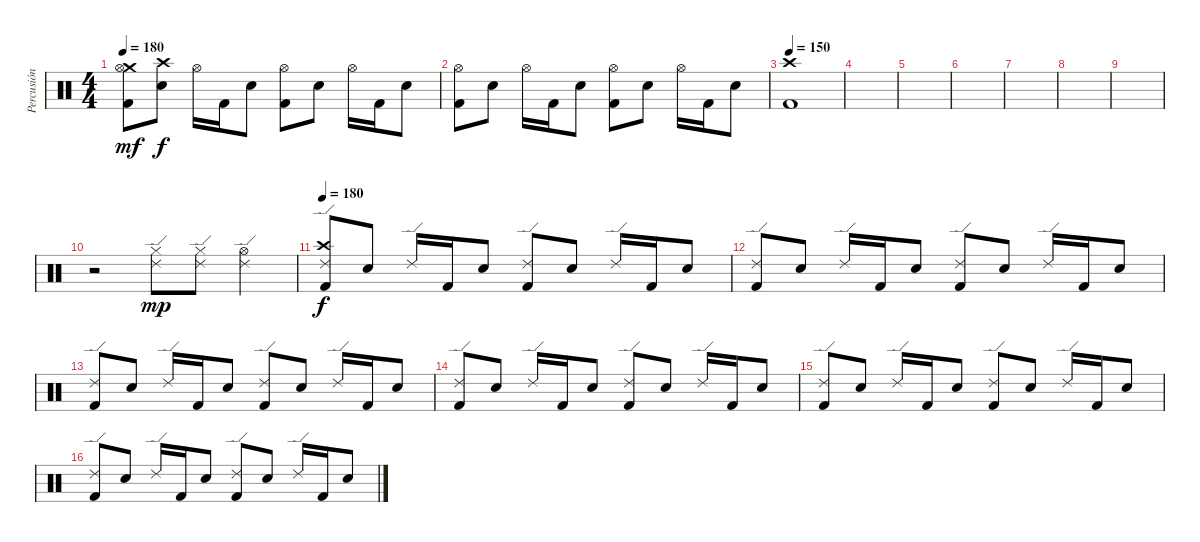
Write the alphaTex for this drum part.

\track ("Percusión" "Percusión") {instrument percussion}
\staff {score}
\articulation defaults
\ts (4 4)
\tempo 180
\clef neutral
\ks c
("Crash medium (hit)" "Hi-Hat (open)" "Kick (hit) 2").8{dy mf} ("Crash high (hit)" "Electric Snare (hit)").8{dy f} "Hi-Hat (open)".16 "Kick (hit) 2".16 "Electric Snare (hit)".8 ("Hi-Hat (open)" "Kick (hit) 2").8 "Electric Snare (hit)".8 "Hi-Hat (open)".16 "Kick (hit) 2".16 "Electric Snare (hit)".8 |
("Hi-Hat (open)" "Kick (hit) 2").8 "Electric Snare (hit)".8 "Hi-Hat (open)".16 "Kick (hit) 2".16 "Electric Snare (hit)".8 ("Hi-Hat (open)" "Kick (hit) 2").8 "Electric Snare (hit)".8 "Hi-Hat (open)".16 "Kick (hit) 2".16 "Electric Snare (hit)".8 |
\tempo 150
("Crash high (hit)" "Kick (hit) 2").1 |
|
|
|
|
|
|
r.2 ("Hi-Hat (closed)" "Ride (edge) 2").8{dy mp} ("Hi-Hat (closed)" "Ride (edge) 2").8 ("Hi-Hat (open)" "Ride (edge) 2").4 |
\tempo 180
("Crash high (hit)" "Ride (edge) 2" "Kick (hit) 2").8{dy f} "Electric Snare (hit)".8 "Ride (edge) 2".16 "Kick (hit) 2".16 "Electric Snare (hit)".8 ("Ride (edge) 2" "Kick (hit) 2").8 "Electric Snare (hit)".8 "Ride (edge) 2".16 "Kick (hit) 2".16 "Electric Snare (hit)".8 |
("Ride (edge) 2" "Kick (hit) 2").8 "Electric Snare (hit)".8 "Ride (edge) 2".16 "Kick (hit) 2".16 "Electric Snare (hit)".8 ("Ride (edge) 2" "Kick (hit) 2").8 "Electric Snare (hit)".8 "Ride (edge) 2".16 "Kick (hit) 2".16 "Electric Snare (hit)".8 |
("Ride (edge) 2" "Kick (hit) 2").8 "Electric Snare (hit)".8 "Ride (edge) 2".16 "Kick (hit) 2".16 "Electric Snare (hit)".8 ("Ride (edge) 2" "Kick (hit) 2").8 "Electric Snare (hit)".8 "Ride (edge) 2".16 "Kick (hit) 2".16 "Electric Snare (hit)".8 |
("Ride (edge) 2" "Kick (hit) 2").8 "Electric Snare (hit)".8 "Ride (edge) 2".16 "Kick (hit) 2".16 "Electric Snare (hit)".8 ("Ride (edge) 2" "Kick (hit) 2").8 "Electric Snare (hit)".8 "Ride (edge) 2".16 "Kick (hit) 2".16 "Electric Snare (hit)".8 |
("Ride (edge) 2" "Kick (hit) 2").8 "Electric Snare (hit)".8 "Ride (edge) 2".16 "Kick (hit) 2".16 "Electric Snare (hit)".8 ("Ride (edge) 2" "Kick (hit) 2").8 "Electric Snare (hit)".8 "Ride (edge) 2".16 "Kick (hit) 2".16 "Electric Snare (hit)".8 |
("Ride (edge) 2" "Kick (hit) 2").8 "Electric Snare (hit)".8 "Ride (edge) 2".16 "Kick (hit) 2".16 "Electric Snare (hit)".8 ("Ride (edge) 2" "Kick (hit) 2").8 "Electric Snare (hit)".8 "Ride (edge) 2".16 "Kick (hit) 2".16 "Electric Snare (hit)".8
